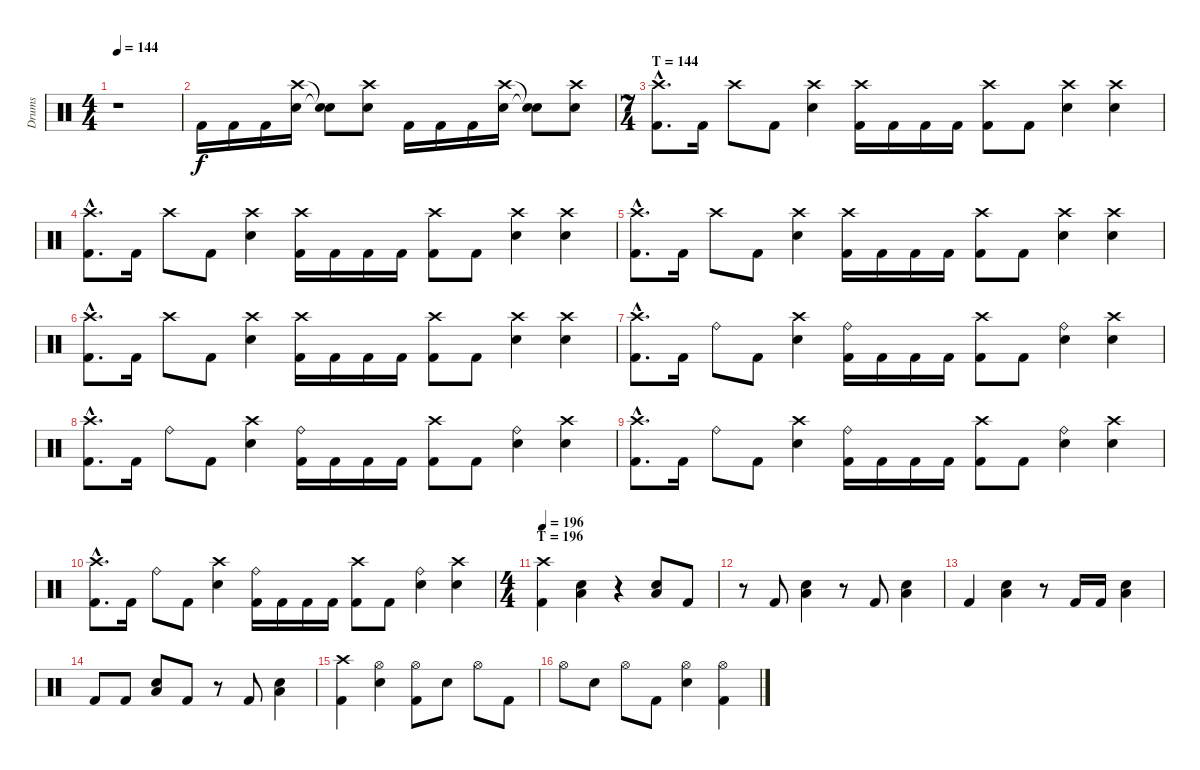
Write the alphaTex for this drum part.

\track ("Drums" "Drums") {instrument percussion}
\staff {score}
\articulation defaults
\ts (4 4)
\section ("" "")
\tempo 144
\clef neutral
\ks c
r.1{dy f} |
"Kick (hit) 2".16 "Kick (hit) 2".16 "Kick (hit) 2".16 ("Crash high (hit)" "Electric Snare (hit)").16 ("Snare (hit)"{t} "Snare (hit)"{t}).8 ("Crash high (hit)" "Electric Snare (hit)").8 "Kick (hit) 2".16 "Kick (hit) 2".16 "Kick (hit) 2".16 ("Crash high (hit)" "Electric Snare (hit)").16 ("Snare (hit)"{t} "Snare (hit)"{t}).8 ("Crash high (hit)" "Electric Snare (hit)").8 |
\ts (7 4)
\section ("" "T = 144")
("Crash high (hit)"{hac} "Kick (hit) 2"{hac}).8{d} "Kick (hit) 2".16 "Crash high (hit)".8 "Kick (hit) 2".8 ("Crash high (hit)" "Electric Snare (hit)").4 ("Crash high (hit)" "Kick (hit) 2").16 "Kick (hit) 2".16 "Kick (hit) 2".16 "Kick (hit) 2".16 ("Crash high (hit)" "Kick (hit) 2").8 "Kick (hit) 2".8 ("Crash high (hit)" "Electric Snare (hit)").4 ("Crash high (hit)" "Electric Snare (hit)").4 |
("Crash high (hit)"{hac} "Kick (hit) 2"{hac}).8{d} "Kick (hit) 2".16 "Crash high (hit)".8 "Kick (hit) 2".8 ("Crash high (hit)" "Electric Snare (hit)").4 ("Crash high (hit)" "Kick (hit) 2").16 "Kick (hit) 2".16 "Kick (hit) 2".16 "Kick (hit) 2".16 ("Crash high (hit)" "Kick (hit) 2").8 "Kick (hit) 2".8 ("Crash high (hit)" "Electric Snare (hit)").4 ("Crash high (hit)" "Electric Snare (hit)").4 |
("Crash high (hit)"{hac} "Kick (hit) 2"{hac}).8{d} "Kick (hit) 2".16 "Crash high (hit)".8 "Kick (hit) 2".8 ("Crash high (hit)" "Electric Snare (hit)").4 ("Crash high (hit)" "Kick (hit) 2").16 "Kick (hit) 2".16 "Kick (hit) 2".16 "Kick (hit) 2".16 ("Crash high (hit)" "Kick (hit) 2").8 "Kick (hit) 2".8 ("Crash high (hit)" "Electric Snare (hit)").4 ("Crash high (hit)" "Electric Snare (hit)").4 |
("Crash high (hit)"{hac} "Kick (hit) 2"{hac}).8{d} "Kick (hit) 2".16 "Crash high (hit)".8 "Kick (hit) 2".8 ("Crash high (hit)" "Electric Snare (hit)").4 ("Crash high (hit)" "Kick (hit) 2").16 "Kick (hit) 2".16 "Kick (hit) 2".16 "Kick (hit) 2".16 ("Crash high (hit)" "Kick (hit) 2").8 "Kick (hit) 2".8 ("Crash high (hit)" "Electric Snare (hit)").4 ("Crash high (hit)" "Electric Snare (hit)").4 |
("Crash high (hit)"{hac} "Kick (hit) 2"{hac}).8{d} "Kick (hit) 2".16 "Ride (bell)".8 "Kick (hit) 2".8 ("Crash high (hit)" "Electric Snare (hit)").4 ("Ride (bell)" "Kick (hit) 2").16 "Kick (hit) 2".16 "Kick (hit) 2".16 "Kick (hit) 2".16 ("Crash high (hit)" "Kick (hit) 2").8 "Kick (hit) 2".8 ("Ride (bell)" "Electric Snare (hit)").4 ("Crash high (hit)" "Electric Snare (hit)").4 |
("Crash high (hit)"{hac} "Kick (hit) 2"{hac}).8{d} "Kick (hit) 2".16 "Ride (bell)".8 "Kick (hit) 2".8 ("Crash high (hit)" "Electric Snare (hit)").4 ("Ride (bell)" "Kick (hit) 2").16 "Kick (hit) 2".16 "Kick (hit) 2".16 "Kick (hit) 2".16 ("Crash high (hit)" "Kick (hit) 2").8 "Kick (hit) 2".8 ("Ride (bell)" "Electric Snare (hit)").4 ("Crash high (hit)" "Electric Snare (hit)").4 |
("Crash high (hit)"{hac} "Kick (hit) 2"{hac}).8{d} "Kick (hit) 2".16 "Ride (bell)".8 "Kick (hit) 2".8 ("Crash high (hit)" "Electric Snare (hit)").4 ("Ride (bell)" "Kick (hit) 2").16 "Kick (hit) 2".16 "Kick (hit) 2".16 "Kick (hit) 2".16 ("Crash high (hit)" "Kick (hit) 2").8 "Kick (hit) 2".8 ("Ride (bell)" "Electric Snare (hit)").4 ("Crash high (hit)" "Electric Snare (hit)").4 |
("Crash high (hit)"{hac} "Kick (hit) 2"{hac}).8{d} "Kick (hit) 2".16 "Ride (bell)".8 "Kick (hit) 2".8 ("Crash high (hit)" "Electric Snare (hit)").4 ("Ride (bell)" "Kick (hit) 2").16 "Kick (hit) 2".16 "Kick (hit) 2".16 "Kick (hit) 2".16 ("Crash high (hit)" "Kick (hit) 2").8 "Kick (hit) 2".8 ("Ride (bell)" "Electric Snare (hit)").4 ("Crash high (hit)" "Electric Snare (hit)").4 |
\ts (4 4)
\section ("" "T = 196")
\tempo 196
("Crash high (hit)" "Kick (hit) 2").4 ("Low Tom (hit)" "Electric Snare (hit)").4 r.4 ("Low Tom (hit)" "Electric Snare (hit)").8 "Kick (hit) 2".8 |
r.8 "Kick (hit) 2".8 ("Low Tom (hit)" "Electric Snare (hit)").4 r.8 "Kick (hit) 2".8 ("Low Tom (hit)" "Electric Snare (hit)").4 |
"Kick (hit) 2".4 ("Low Tom (hit)" "Electric Snare (hit)").4 r.8 "Kick (hit) 2".16 "Kick (hit) 2".16 ("Low Tom (hit)" "Electric Snare (hit)").4 |
"Kick (hit) 2".8 "Kick (hit) 2".8 ("Low Tom (hit)" "Electric Snare (hit)").8 "Kick (hit) 2".8 r.8 "Kick (hit) 2".8 ("Low Tom (hit)" "Electric Snare (hit)").4 |
\section ("" "")
("Crash high (hit)" "Kick (hit) 2").4 ("Hi-Hat (open)" "Electric Snare (hit)").4 ("Hi-Hat (open)" "Kick (hit) 2").8 "Electric Snare (hit)".8 "Hi-Hat (open)".8 "Kick (hit) 2".8 |
"Hi-Hat (open)".8 "Electric Snare (hit)".8 "Hi-Hat (open)".8 "Kick (hit) 2".8 ("Hi-Hat (open)" "Electric Snare (hit)").4 ("Hi-Hat (open)" "Kick (hit) 2").4
